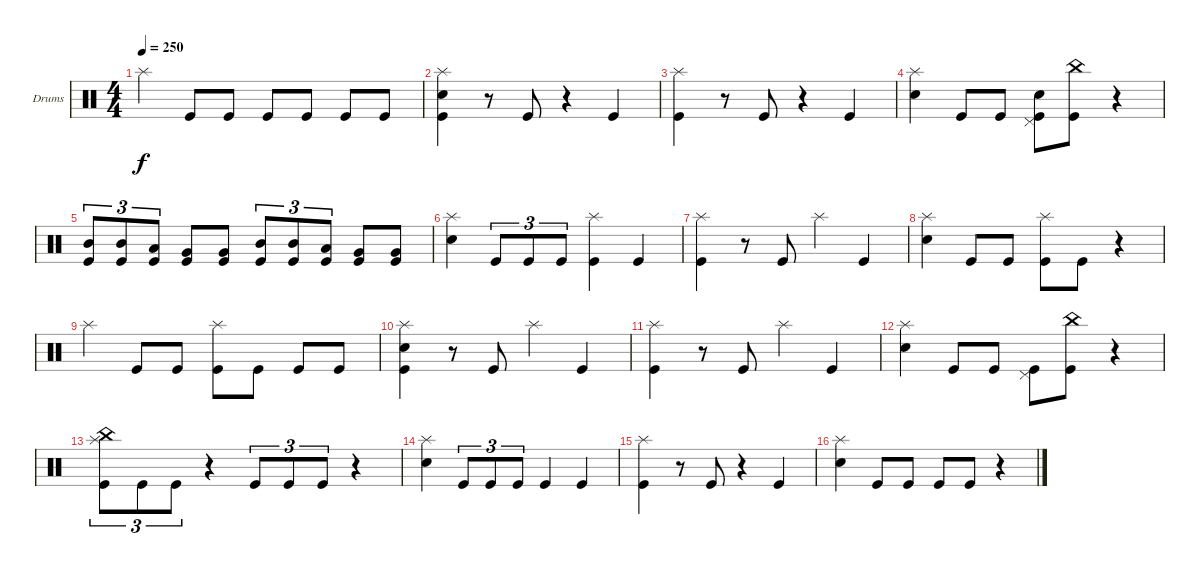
\defaultSystemsLayout 4
\bracketExtendMode groupsimilarinstruments
\firstSystemTrackNameOrientation horizontal
\otherSystemsTrackNameOrientation horizontal
\track ("Drumkit" "Drums") {instrument percussion}
\staff {score}
\articulation defaults
\ts (4 4)
\tempo 250
\clef neutral
\ks c "Splash (hit)".4{dy f} "Kick (hit)".8 "Kick (hit)".8 "Kick (hit)".8 "Kick (hit)".8 "Kick (hit)".8 "Kick (hit)".8
|
("Splash (hit)" "Kick (hit)" "Snare (hit) 2").4 r.8 "Kick (hit)".8 r.4 "Kick (hit)".4 |
("Splash (hit)" "Kick (hit)").4 r.8 "Kick (hit)".8 r.4 "Kick (hit)".4 |
("Splash (hit)" "Snare (hit) 2").4 "Kick (hit)".8 "Kick (hit)".8 ("Kick (hit)" "Pedal Hi-Hat (hit)" "Snare (hit) 2").8 ("Kick (hit)" "China (hit)").8 r.4 |
("Kick (hit)" "Mid Tom (hit)").8{tu (3 2)} ("Kick (hit)" "Mid Tom (hit)").8{tu (3 2)} ("Kick (hit)" "Low Tom (hit)").8{tu (3 2)} ("Kick (hit)" "Very Low Tom (hit)").8 ("Kick (hit)" "Very Low Tom (hit)").8 ("Kick (hit)" "Mid Tom (hit)").8{tu (3 2)} ("Kick (hit)" "Mid Tom (hit)").8{tu (3 2)} ("Kick (hit)" "Low Tom (hit)").8{tu (3 2)} ("Kick (hit)" "Very Low Tom (hit)").8 ("Kick (hit)" "Very Low Tom (hit)").8 |
("Splash (hit)" "Snare (hit) 2").4 "Kick (hit)".8{tu (3 2)} "Kick (hit)".8{tu (3 2)} "Kick (hit)".8{tu (3 2)} ("Kick (hit)" "Splash (hit)").4 "Kick (hit)".4 |
("Splash (hit)" "Kick (hit)").4 r.8 "Kick (hit)".8 "Splash (hit)".4 "Kick (hit)".4 |
("Splash (hit)" "Snare (hit) 2").4 "Kick (hit)".8 "Kick (hit)".8 ("Kick (hit)" "Splash (hit)").8 "Kick (hit)".8 r.4 |
"Splash (hit)".4 "Kick (hit)".8 "Kick (hit)".8 ("Kick (hit)" "Splash (hit)").8 "Kick (hit)".8 "Kick (hit)".8 "Kick (hit)".8 |
("Splash (hit)" "Kick (hit)" "Snare (hit) 2").4 r.8 "Kick (hit)".8 "Splash (hit)".4 "Kick (hit)".4 |
("Splash (hit)" "Kick (hit)").4 r.8 "Kick (hit)".8 "Splash (hit)".4 "Kick (hit)".4 |
("Splash (hit)" "Snare (hit) 2").4 "Kick (hit)".8 "Kick (hit)".8 ("Kick (hit)" "Pedal Hi-Hat (hit)").8 ("Kick (hit)" "China (hit)").8 r.4 |
("Kick (hit)" "China (hit)" "Splash (hit)").8{tu (3 2)} "Kick (hit)".8{tu (3 2)} "Kick (hit)".8{tu (3 2)} r.4 "Kick (hit)".8{tu (3 2)} "Kick (hit)".8{tu (3 2)} "Kick (hit)".8{tu (3 2)} r.4 |
("Splash (hit)" "Snare (hit) 2").4 "Kick (hit)".8{tu (3 2)} "Kick (hit)".8{tu (3 2)} "Kick (hit)".8{tu (3 2)} "Kick (hit)".4 "Kick (hit)".4 |
("Splash (hit)" "Kick (hit)").4 r.8 "Kick (hit)".8 r.4 "Kick (hit)".4 |
("Splash (hit)" "Snare (hit) 2").4 "Kick (hit)".8 "Kick (hit)".8 "Kick (hit)".8 "Kick (hit)".8 r.4
